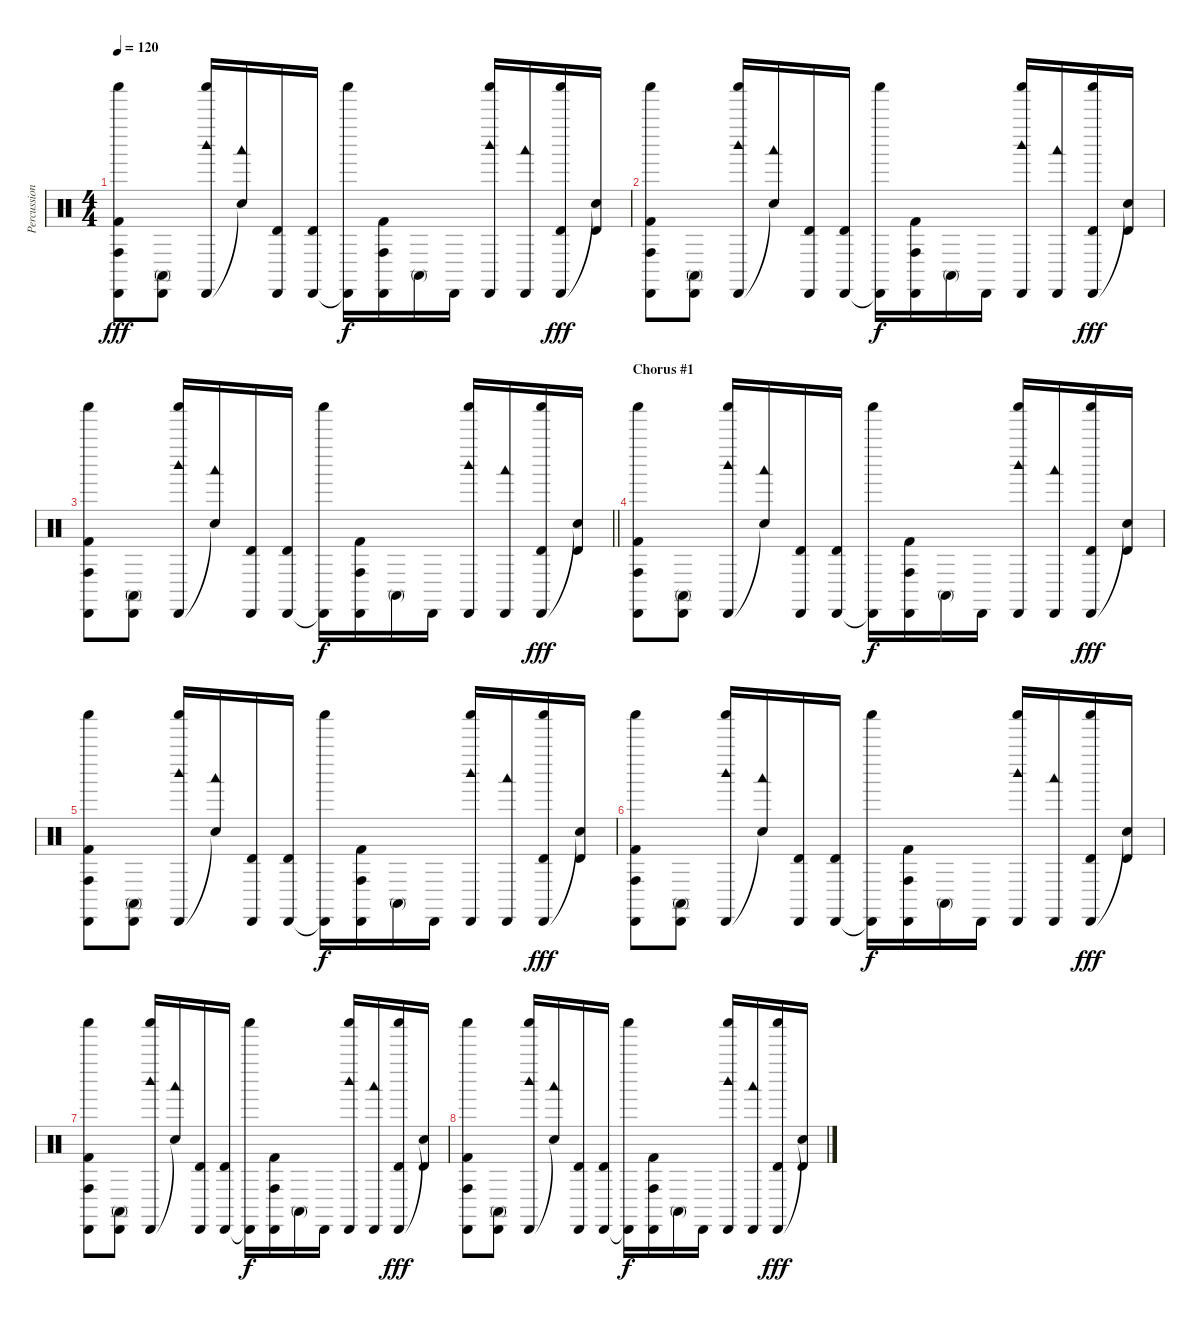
\track ("Percussion" "Percussion") {instrument percussion}
\staff {score}
\articulation defaults
\ts (4 4)
\tempo 120
\clef neutral
\ks c
("Cabasa (hit)" "Conga high (hit)" "Kick (hit) 2" "Shaker (hit)").8{dy fff} ("Cabasa (hit)" "Conga high (mute)").8 ("Cabasa (hit)" "Woodblock high (hit)" "Shaker (hit)").16 ("Snare (hit)"{t} "Woodblock low (hit)").16 ("Cabasa (hit)" "Timbale high (hit)").16 ("Cabasa (hit)" "Timbale high (hit)").16 ("Cabasa (hit)"{t} "Shaker (hit)").16{dy f} ("Cabasa (hit)" "Conga high (hit)" "Kick (hit) 2").16 "Conga high (mute)".16 "Cabasa (hit)".16 ("Cabasa (hit)" "Woodblock high (hit)" "Shaker (hit)").16 ("Cabasa (hit)" "Woodblock low (hit)").16 ("Cabasa (hit)" "Timbale high (hit)" "Shaker (hit)").16{dy fff} ("Snare (hit)"{t} "Timbale high (hit)").16 |
("Cabasa (hit)" "Conga high (hit)" "Kick (hit) 2" "Shaker (hit)").8 ("Cabasa (hit)" "Conga high (mute)").8 ("Cabasa (hit)" "Woodblock high (hit)" "Shaker (hit)").16 ("Snare (hit)"{t} "Woodblock low (hit)").16 ("Cabasa (hit)" "Timbale high (hit)").16 ("Cabasa (hit)" "Timbale high (hit)").16 ("Cabasa (hit)"{t} "Shaker (hit)").16{dy f} ("Cabasa (hit)" "Conga high (hit)" "Kick (hit) 2").16 "Conga high (mute)".16 "Cabasa (hit)".16 ("Cabasa (hit)" "Woodblock high (hit)" "Shaker (hit)").16 ("Cabasa (hit)" "Woodblock low (hit)").16 ("Cabasa (hit)" "Timbale high (hit)" "Shaker (hit)").16{dy fff} ("Snare (hit)"{t} "Timbale high (hit)").16 |
\barLineRight lightlight
("Cabasa (hit)" "Conga high (hit)" "Kick (hit) 2" "Shaker (hit)").8 ("Cabasa (hit)" "Conga high (mute)").8 ("Cabasa (hit)" "Woodblock high (hit)" "Shaker (hit)").16 ("Snare (hit)"{t} "Woodblock low (hit)").16 ("Cabasa (hit)" "Timbale high (hit)").16 ("Cabasa (hit)" "Timbale high (hit)").16 ("Cabasa (hit)"{t} "Shaker (hit)").16{dy f} ("Cabasa (hit)" "Conga high (hit)" "Kick (hit) 2").16 "Conga high (mute)".16 "Cabasa (hit)".16 ("Cabasa (hit)" "Woodblock high (hit)" "Shaker (hit)").16 ("Cabasa (hit)" "Woodblock low (hit)").16 ("Cabasa (hit)" "Timbale high (hit)" "Shaker (hit)").16{dy fff} ("Snare (hit)"{t} "Timbale high (hit)").16 |
\section ("" "Chorus #1")
("Cabasa (hit)" "Conga high (hit)" "Kick (hit) 2" "Shaker (hit)").8 ("Cabasa (hit)" "Conga high (mute)").8 ("Cabasa (hit)" "Woodblock high (hit)" "Shaker (hit)").16 ("Snare (hit)"{t} "Woodblock low (hit)").16 ("Cabasa (hit)" "Timbale high (hit)").16 ("Cabasa (hit)" "Timbale high (hit)").16 ("Cabasa (hit)"{t} "Shaker (hit)").16{dy f} ("Cabasa (hit)" "Conga high (hit)" "Kick (hit) 2").16 "Conga high (mute)".16 "Cabasa (hit)".16 ("Cabasa (hit)" "Woodblock high (hit)" "Shaker (hit)").16 ("Cabasa (hit)" "Woodblock low (hit)").16 ("Cabasa (hit)" "Timbale high (hit)" "Shaker (hit)").16{dy fff} ("Snare (hit)"{t} "Timbale high (hit)").16 |
("Cabasa (hit)" "Conga high (hit)" "Kick (hit) 2" "Shaker (hit)").8 ("Cabasa (hit)" "Conga high (mute)").8 ("Cabasa (hit)" "Woodblock high (hit)" "Shaker (hit)").16 ("Snare (hit)"{t} "Woodblock low (hit)").16 ("Cabasa (hit)" "Timbale high (hit)").16 ("Cabasa (hit)" "Timbale high (hit)").16 ("Cabasa (hit)"{t} "Shaker (hit)").16{dy f} ("Cabasa (hit)" "Conga high (hit)" "Kick (hit) 2").16 "Conga high (mute)".16 "Cabasa (hit)".16 ("Cabasa (hit)" "Woodblock high (hit)" "Shaker (hit)").16 ("Cabasa (hit)" "Woodblock low (hit)").16 ("Cabasa (hit)" "Timbale high (hit)" "Shaker (hit)").16{dy fff} ("Snare (hit)"{t} "Timbale high (hit)").16 |
("Cabasa (hit)" "Conga high (hit)" "Kick (hit) 2" "Shaker (hit)").8 ("Cabasa (hit)" "Conga high (mute)").8 ("Cabasa (hit)" "Woodblock high (hit)" "Shaker (hit)").16 ("Snare (hit)"{t} "Woodblock low (hit)").16 ("Cabasa (hit)" "Timbale high (hit)").16 ("Cabasa (hit)" "Timbale high (hit)").16 ("Cabasa (hit)"{t} "Shaker (hit)").16{dy f} ("Cabasa (hit)" "Conga high (hit)" "Kick (hit) 2").16 "Conga high (mute)".16 "Cabasa (hit)".16 ("Cabasa (hit)" "Woodblock high (hit)" "Shaker (hit)").16 ("Cabasa (hit)" "Woodblock low (hit)").16 ("Cabasa (hit)" "Timbale high (hit)" "Shaker (hit)").16{dy fff} ("Snare (hit)"{t} "Timbale high (hit)").16 |
("Cabasa (hit)" "Conga high (hit)" "Kick (hit) 2" "Shaker (hit)").8 ("Cabasa (hit)" "Conga high (mute)").8 ("Cabasa (hit)" "Woodblock high (hit)" "Shaker (hit)").16 ("Snare (hit)"{t} "Woodblock low (hit)").16 ("Cabasa (hit)" "Timbale high (hit)").16 ("Cabasa (hit)" "Timbale high (hit)").16 ("Cabasa (hit)"{t} "Shaker (hit)").16{dy f} ("Cabasa (hit)" "Conga high (hit)" "Kick (hit) 2").16 "Conga high (mute)".16 "Cabasa (hit)".16 ("Cabasa (hit)" "Woodblock high (hit)" "Shaker (hit)").16 ("Cabasa (hit)" "Woodblock low (hit)").16 ("Cabasa (hit)" "Timbale high (hit)" "Shaker (hit)").16{dy fff} ("Snare (hit)"{t} "Timbale high (hit)").16 |
("Cabasa (hit)" "Conga high (hit)" "Kick (hit) 2" "Shaker (hit)").8 ("Cabasa (hit)" "Conga high (mute)").8 ("Cabasa (hit)" "Woodblock high (hit)" "Shaker (hit)").16 ("Snare (hit)"{t} "Woodblock low (hit)").16 ("Cabasa (hit)" "Timbale high (hit)").16 ("Cabasa (hit)" "Timbale high (hit)").16 ("Cabasa (hit)"{t} "Shaker (hit)").16{dy f} ("Cabasa (hit)" "Conga high (hit)" "Kick (hit) 2").16 "Conga high (mute)".16 "Cabasa (hit)".16 ("Cabasa (hit)" "Woodblock high (hit)" "Shaker (hit)").16 ("Cabasa (hit)" "Woodblock low (hit)").16 ("Cabasa (hit)" "Timbale high (hit)" "Shaker (hit)").16{dy fff} ("Snare (hit)"{t} "Timbale high (hit)").16
